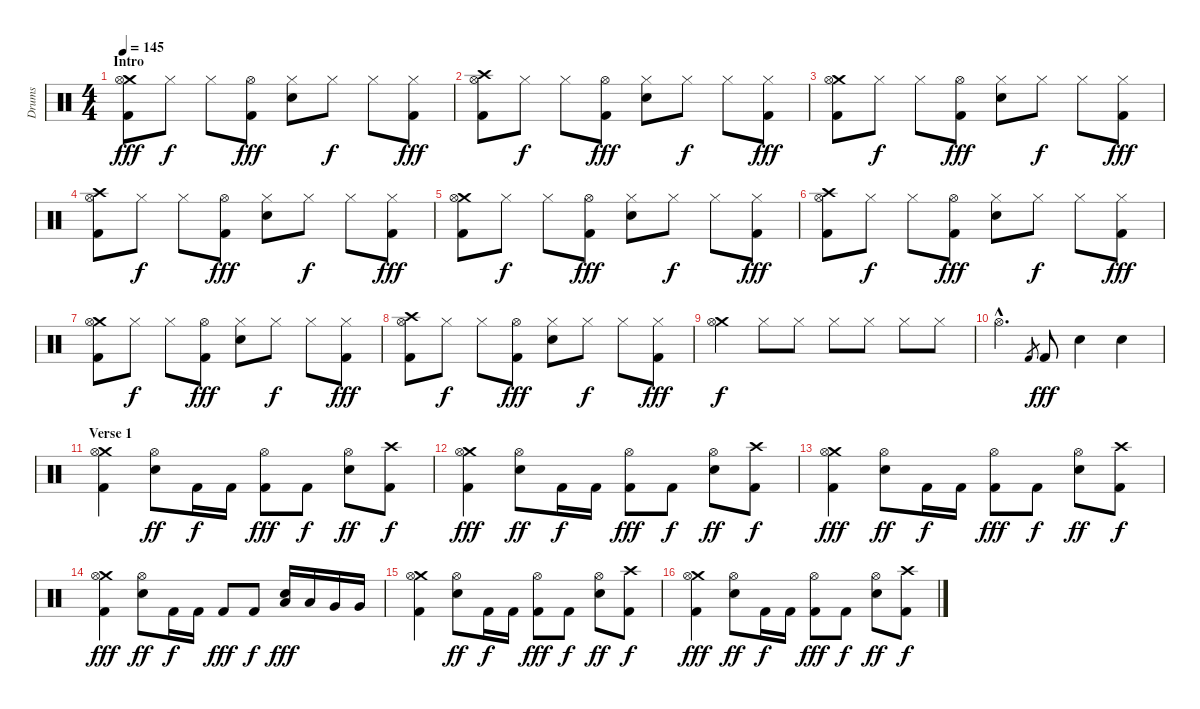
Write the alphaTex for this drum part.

\track ("Drums" "Drums") {instrument percussion}
\staff {score}
\articulation defaults
\ts (4 4)
\section ("" "Intro")
\tempo 145
\clef neutral
\ks c
("Crash medium (hit)" "Hi-Hat (open)" "Kick (hit) 2").8{dy fff} "Hi-Hat (closed)".8{dy f} "Hi-Hat (closed)".8 ("Hi-Hat (open)" "Kick (hit) 2").8{dy fff} ("Hi-Hat (closed)" "Snare (hit) 2").8 "Hi-Hat (closed)".8{dy f} "Hi-Hat (closed)".8 ("Hi-Hat (closed)" "Kick (hit) 2").8{dy fff} |
("Crash high (hit)" "Hi-Hat (open)" "Kick (hit) 2").8 "Hi-Hat (closed)".8{dy f} "Hi-Hat (closed)".8 ("Hi-Hat (open)" "Kick (hit) 2").8{dy fff} ("Hi-Hat (closed)" "Snare (hit) 2").8 "Hi-Hat (closed)".8{dy f} "Hi-Hat (closed)".8 ("Hi-Hat (closed)" "Kick (hit) 2").8{dy fff} |
("Crash medium (hit)" "Hi-Hat (open)" "Kick (hit) 2").8 "Hi-Hat (closed)".8{dy f} "Hi-Hat (closed)".8 ("Hi-Hat (open)" "Kick (hit) 2").8{dy fff} ("Hi-Hat (closed)" "Snare (hit) 2").8 "Hi-Hat (closed)".8{dy f} "Hi-Hat (closed)".8 ("Hi-Hat (closed)" "Kick (hit) 2").8{dy fff} |
("Crash high (hit)" "Hi-Hat (open)" "Kick (hit) 2").8 "Hi-Hat (closed)".8{dy f} "Hi-Hat (closed)".8 ("Hi-Hat (open)" "Kick (hit) 2").8{dy fff} ("Hi-Hat (closed)" "Snare (hit) 2").8 "Hi-Hat (closed)".8{dy f} "Hi-Hat (closed)".8 ("Hi-Hat (closed)" "Kick (hit) 2").8{dy fff} |
("Crash medium (hit)" "Hi-Hat (open)" "Kick (hit) 2").8 "Hi-Hat (closed)".8{dy f} "Hi-Hat (closed)".8 ("Hi-Hat (open)" "Kick (hit) 2").8{dy fff} ("Hi-Hat (closed)" "Snare (hit) 2").8 "Hi-Hat (closed)".8{dy f} "Hi-Hat (closed)".8 ("Hi-Hat (closed)" "Kick (hit) 2").8{dy fff} |
("Crash high (hit)" "Hi-Hat (open)" "Kick (hit) 2").8 "Hi-Hat (closed)".8{dy f} "Hi-Hat (closed)".8 ("Hi-Hat (open)" "Kick (hit) 2").8{dy fff} ("Hi-Hat (closed)" "Snare (hit) 2").8 "Hi-Hat (closed)".8{dy f} "Hi-Hat (closed)".8 ("Hi-Hat (closed)" "Kick (hit) 2").8{dy fff} |
("Crash medium (hit)" "Hi-Hat (open)" "Kick (hit) 2").8 "Hi-Hat (closed)".8{dy f} "Hi-Hat (closed)".8 ("Hi-Hat (open)" "Kick (hit) 2").8{dy fff} ("Hi-Hat (closed)" "Snare (hit) 2").8 "Hi-Hat (closed)".8{dy f} "Hi-Hat (closed)".8 ("Hi-Hat (closed)" "Kick (hit) 2").8{dy fff} |
("Crash high (hit)" "Hi-Hat (open)" "Kick (hit) 2").8 "Hi-Hat (closed)".8{dy f} "Hi-Hat (closed)".8 ("Hi-Hat (open)" "Kick (hit) 2").8{dy fff} ("Hi-Hat (closed)" "Snare (hit) 2").8 "Hi-Hat (closed)".8{dy f} "Hi-Hat (closed)".8 ("Hi-Hat (closed)" "Kick (hit) 2").8{dy fff} |
("Crash medium (hit)" "Hi-Hat (open)").4{dy f} "Hi-Hat (closed)".8 "Hi-Hat (closed)".8 "Hi-Hat (closed)".8 "Hi-Hat (closed)".8 "Hi-Hat (closed)".8 "Hi-Hat (closed)".8 |
"Hi-Hat (open)"{hac}.4{d} "Kick (hit) 2".8{gr} "Kick (hit) 2".8{dy fff} "Snare (hit) 2".4 "Snare (hit) 2".4 |
\section ("" "Verse 1")
("Crash medium (hit)" "Hi-Hat (open)" "Kick (hit) 2").4 ("Hi-Hat (open)" "Snare (hit) 2").8{dy ff} "Kick (hit) 2".16{dy f} "Kick (hit) 2".16 ("Hi-Hat (open)" "Kick (hit) 2").8{dy fff} "Kick (hit) 2".8{dy f} ("Hi-Hat (open)" "Snare (hit) 2").8{dy ff} ("Crash high (hit)" "Kick (hit) 2").8{dy f} |
("Crash medium (hit)" "Hi-Hat (open)" "Kick (hit) 2").4{dy fff} ("Hi-Hat (open)" "Snare (hit) 2").8{dy ff} "Kick (hit) 2".16{dy f} "Kick (hit) 2".16 ("Hi-Hat (open)" "Kick (hit) 2").8{dy fff} "Kick (hit) 2".8{dy f} ("Hi-Hat (open)" "Snare (hit) 2").8{dy ff} ("Crash high (hit)" "Kick (hit) 2").8{dy f} |
("Crash medium (hit)" "Hi-Hat (open)" "Kick (hit) 2").4{dy fff} ("Hi-Hat (open)" "Snare (hit) 2").8{dy ff} "Kick (hit) 2".16{dy f} "Kick (hit) 2".16 ("Hi-Hat (open)" "Kick (hit) 2").8{dy fff} "Kick (hit) 2".8{dy f} ("Hi-Hat (open)" "Snare (hit) 2").8{dy ff} ("Crash high (hit)" "Kick (hit) 2").8{dy f} |
("Crash medium (hit)" "Hi-Hat (open)" "Kick (hit) 2").4{dy fff} ("Hi-Hat (open)" "Snare (hit) 2").8{dy ff} "Kick (hit) 2".16{dy f} "Kick (hit) 2".16 "Kick (hit) 2".8{dy fff} "Kick (hit) 2".8{dy f} ("Low Tom (hit)" "Snare (hit) 2").16{dy fff} "Low Tom (hit)".16 "Very Low Tom (hit)".16 "Very Low Tom (hit)".16 |
("Crash medium (hit)" "Hi-Hat (open)" "Kick (hit) 2").4 ("Hi-Hat (open)" "Snare (hit) 2").8{dy ff} "Kick (hit) 2".16{dy f} "Kick (hit) 2".16 ("Hi-Hat (open)" "Kick (hit) 2").8{dy fff} "Kick (hit) 2".8{dy f} ("Hi-Hat (open)" "Snare (hit) 2").8{dy ff} ("Crash high (hit)" "Kick (hit) 2").8{dy f} |
("Crash medium (hit)" "Hi-Hat (open)" "Kick (hit) 2").4{dy fff} ("Hi-Hat (open)" "Snare (hit) 2").8{dy ff} "Kick (hit) 2".16{dy f} "Kick (hit) 2".16 ("Hi-Hat (open)" "Kick (hit) 2").8{dy fff} "Kick (hit) 2".8{dy f} ("Hi-Hat (open)" "Snare (hit) 2").8{dy ff} ("Crash high (hit)" "Kick (hit) 2").8{dy f}
